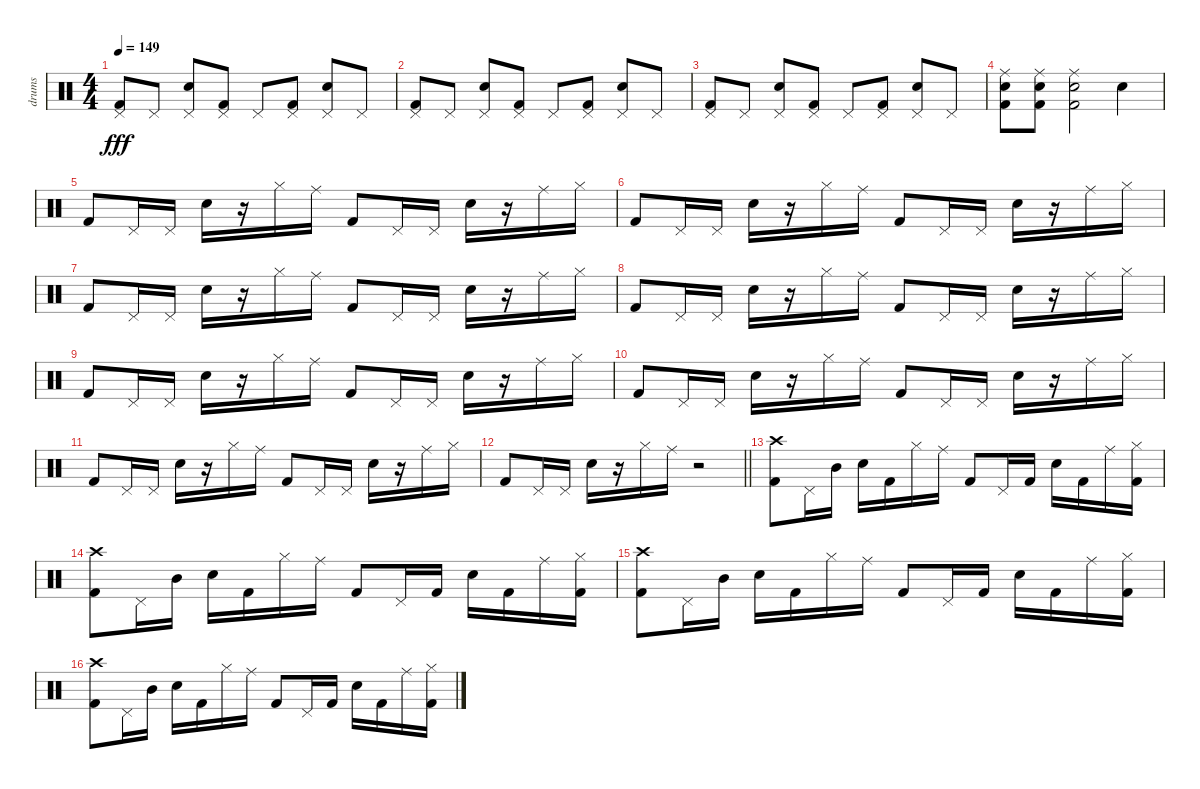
\track ("drums" "drums") {instrument percussion}
\staff {score}
\articulation defaults
\ts (4 4)
\tempo 149
\clef neutral
\ks c
("Pedal Hi-Hat (hit)" "Kick (hit) 2").8{dy fff} "Pedal Hi-Hat (hit)".8 ("Pedal Hi-Hat (hit)" "Snare (hit) 2").8 ("Pedal Hi-Hat (hit)" "Kick (hit) 2").8 "Pedal Hi-Hat (hit)".8 ("Pedal Hi-Hat (hit)" "Kick (hit) 2").8 ("Pedal Hi-Hat (hit)" "Snare (hit) 2").8 "Pedal Hi-Hat (hit)".8 |
("Pedal Hi-Hat (hit)" "Kick (hit) 2").8 "Pedal Hi-Hat (hit)".8 ("Pedal Hi-Hat (hit)" "Snare (hit) 2").8 ("Pedal Hi-Hat (hit)" "Kick (hit) 2").8 "Pedal Hi-Hat (hit)".8 ("Pedal Hi-Hat (hit)" "Kick (hit) 2").8 ("Pedal Hi-Hat (hit)" "Snare (hit) 2").8 "Pedal Hi-Hat (hit)".8 |
("Pedal Hi-Hat (hit)" "Kick (hit) 2").8 "Pedal Hi-Hat (hit)".8 ("Pedal Hi-Hat (hit)" "Snare (hit) 2").8 ("Pedal Hi-Hat (hit)" "Kick (hit) 2").8 "Pedal Hi-Hat (hit)".8 ("Pedal Hi-Hat (hit)" "Kick (hit) 2").8 ("Pedal Hi-Hat (hit)" "Snare (hit) 2").8 "Pedal Hi-Hat (hit)".8 |
("Ride (middle)" "Snare (hit) 2" "Kick (hit) 2").8 ("Ride (middle)" "Snare (hit) 2" "Kick (hit) 2").8 ("Ride (middle)" "Snare (hit) 2" "Kick (hit) 2").2 "Snare (hit) 2".4 |
"Kick (hit) 2".8 "Pedal Hi-Hat (hit)".16 "Pedal Hi-Hat (hit)".16 "Snare (hit) 2".16 r.16 "Hi-Hat (closed)".16 "Ride (middle)".16 "Kick (hit) 2".8 "Pedal Hi-Hat (hit)".16 "Pedal Hi-Hat (hit)".16 "Snare (hit) 2".16 r.16 "Ride (middle)".16 "Hi-Hat (closed)".16 |
"Kick (hit) 2".8 "Pedal Hi-Hat (hit)".16 "Pedal Hi-Hat (hit)".16 "Snare (hit) 2".16 r.16 "Hi-Hat (closed)".16 "Ride (middle)".16 "Kick (hit) 2".8 "Pedal Hi-Hat (hit)".16 "Pedal Hi-Hat (hit)".16 "Snare (hit) 2".16 r.16 "Ride (middle)".16 "Hi-Hat (closed)".16 |
"Kick (hit) 2".8 "Pedal Hi-Hat (hit)".16 "Pedal Hi-Hat (hit)".16 "Snare (hit) 2".16 r.16 "Hi-Hat (closed)".16 "Ride (middle)".16 "Kick (hit) 2".8 "Pedal Hi-Hat (hit)".16 "Pedal Hi-Hat (hit)".16 "Snare (hit) 2".16 r.16 "Ride (middle)".16 "Hi-Hat (closed)".16 |
"Kick (hit) 2".8 "Pedal Hi-Hat (hit)".16 "Pedal Hi-Hat (hit)".16 "Snare (hit) 2".16 r.16 "Hi-Hat (closed)".16 "Ride (middle)".16 "Kick (hit) 2".8 "Pedal Hi-Hat (hit)".16 "Pedal Hi-Hat (hit)".16 "Snare (hit) 2".16 r.16 "Ride (middle)".16 "Hi-Hat (closed)".16 |
"Kick (hit) 2".8 "Pedal Hi-Hat (hit)".16 "Pedal Hi-Hat (hit)".16 "Snare (hit) 2".16 r.16 "Hi-Hat (closed)".16 "Ride (middle)".16 "Kick (hit) 2".8 "Pedal Hi-Hat (hit)".16 "Pedal Hi-Hat (hit)".16 "Snare (hit) 2".16 r.16 "Ride (middle)".16 "Hi-Hat (closed)".16 |
"Kick (hit) 2".8 "Pedal Hi-Hat (hit)".16 "Pedal Hi-Hat (hit)".16 "Snare (hit) 2".16 r.16 "Hi-Hat (closed)".16 "Ride (middle)".16 "Kick (hit) 2".8 "Pedal Hi-Hat (hit)".16 "Pedal Hi-Hat (hit)".16 "Snare (hit) 2".16 r.16 "Ride (middle)".16 "Hi-Hat (closed)".16 |
"Kick (hit) 2".8 "Pedal Hi-Hat (hit)".16 "Pedal Hi-Hat (hit)".16 "Snare (hit) 2".16 r.16 "Hi-Hat (closed)".16 "Ride (middle)".16 "Kick (hit) 2".8 "Pedal Hi-Hat (hit)".16 "Pedal Hi-Hat (hit)".16 "Snare (hit) 2".16 r.16 "Ride (middle)".16 "Hi-Hat (closed)".16 |
\barLineRight lightlight "Kick (hit) 2".8 "Pedal Hi-Hat (hit)".16 "Pedal Hi-Hat (hit)".16 "Snare (hit) 2".16
r.16 "Hi-Hat (closed)".16 "Ride (middle)".16 r.2 |
("Crash high (hit)" "Kick (hit) 2").8 "Pedal Hi-Hat (hit)".16 "Mid Tom (hit)".16 "Snare (hit) 2".16 "Kick (hit) 2".16 "Hi-Hat (closed)".16 "Ride (middle)".16 "Kick (hit) 2".8 "Pedal Hi-Hat (hit)".16 "Kick (hit) 2".16 "Snare (hit) 2".16 "Kick (hit) 2".16 "Ride (middle)".16 ("Hi-Hat (closed)" "Kick (hit) 2").16 |
("Crash high (hit)" "Kick (hit) 2").8 "Pedal Hi-Hat (hit)".16 "Mid Tom (hit)".16 "Snare (hit) 2".16 "Kick (hit) 2".16 "Hi-Hat (closed)".16 "Ride (middle)".16 "Kick (hit) 2".8 "Pedal Hi-Hat (hit)".16 "Kick (hit) 2".16 "Snare (hit) 2".16 "Kick (hit) 2".16 "Ride (middle)".16 ("Hi-Hat (closed)" "Kick (hit) 2").16 |
("Crash high (hit)" "Kick (hit) 2").8 "Pedal Hi-Hat (hit)".16 "Mid Tom (hit)".16 "Snare (hit) 2".16 "Kick (hit) 2".16 "Hi-Hat (closed)".16 "Ride (middle)".16 "Kick (hit) 2".8 "Pedal Hi-Hat (hit)".16 "Kick (hit) 2".16 "Snare (hit) 2".16 "Kick (hit) 2".16 "Ride (middle)".16 ("Hi-Hat (closed)" "Kick (hit) 2").16 |
("Crash high (hit)" "Kick (hit) 2").8 "Pedal Hi-Hat (hit)".16 "Mid Tom (hit)".16 "Snare (hit) 2".16 "Kick (hit) 2".16 "Hi-Hat (closed)".16 "Ride (middle)".16 "Kick (hit) 2".8 "Pedal Hi-Hat (hit)".16 "Kick (hit) 2".16 "Snare (hit) 2".16 "Kick (hit) 2".16 "Ride (middle)".16 ("Hi-Hat (closed)" "Kick (hit) 2").16
